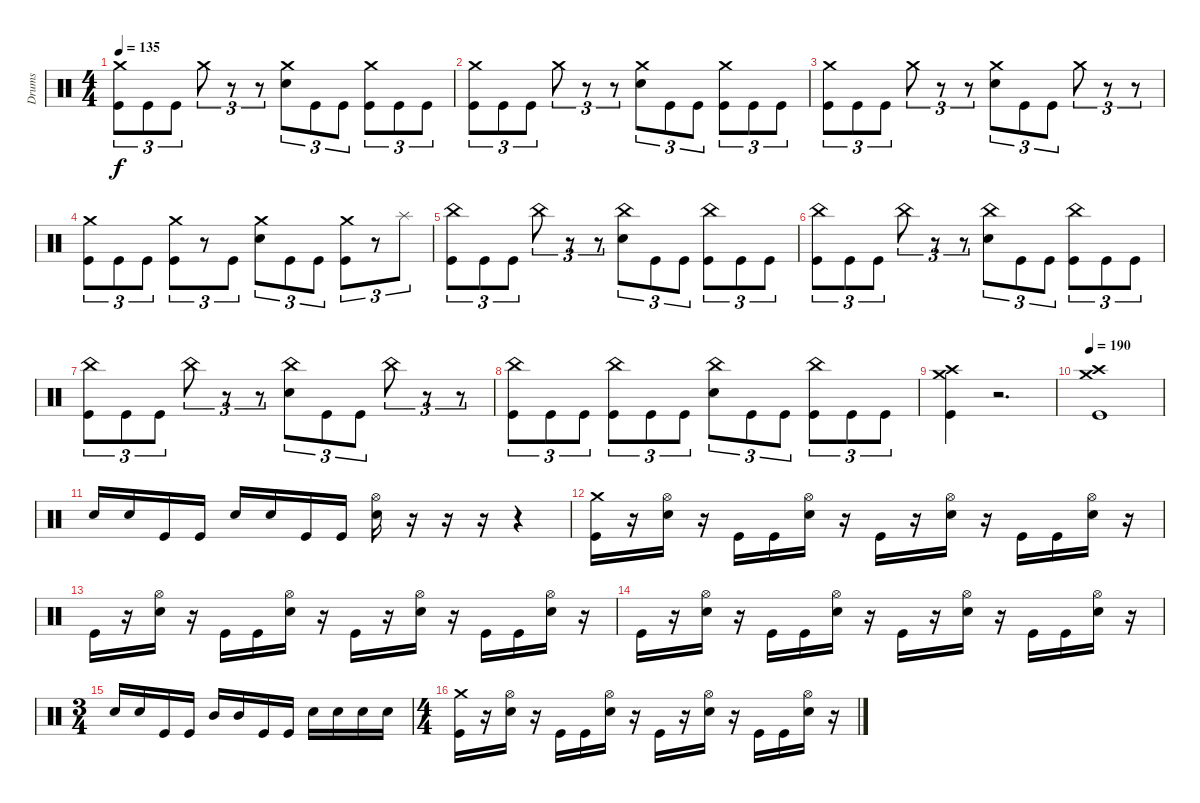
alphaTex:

\track ("Drums" "Drums") {instrument percussion}
\staff {score}
\articulation defaults
\ts (4 4)
\tempo 135
\clef neutral
\ks c
("Crash medium (hit)" "Kick (hit)").8{tu (3 2) dy f} "Kick (hit)".8{tu (3 2)} "Kick (hit)".8{tu (3 2)} "Crash medium (hit)".8{tu (3 2)} r.8{tu (3 2)} r.8{tu (3 2)} ("Crash medium (hit)" "Electric Snare (hit)").8{tu (3 2)} "Kick (hit)".8{tu (3 2)} "Kick (hit)".8{tu (3 2)} ("Crash medium (hit)" "Kick (hit)").8{tu (3 2)} "Kick (hit)".8{tu (3 2)} "Kick (hit)".8{tu (3 2)} |
("Crash medium (hit)" "Kick (hit)").8{tu (3 2)} "Kick (hit)".8{tu (3 2)} "Kick (hit)".8{tu (3 2)} "Crash medium (hit)".8{tu (3 2)} r.8{tu (3 2)} r.8{tu (3 2)} ("Crash medium (hit)" "Electric Snare (hit)").8{tu (3 2)} "Kick (hit)".8{tu (3 2)} "Kick (hit)".8{tu (3 2)} ("Crash medium (hit)" "Kick (hit)").8{tu (3 2)} "Kick (hit)".8{tu (3 2)} "Kick (hit)".8{tu (3 2)} |
("Crash medium (hit)" "Kick (hit)").8{tu (3 2)} "Kick (hit)".8{tu (3 2)} "Kick (hit)".8{tu (3 2)} "Crash medium (hit)".8{tu (3 2)} r.8{tu (3 2)} r.8{tu (3 2)} ("Crash medium (hit)" "Electric Snare (hit)").8{tu (3 2)} "Kick (hit)".8{tu (3 2)} "Kick (hit)".8{tu (3 2)} "Crash medium (hit)".8{tu (3 2)} r.8{tu (3 2)} r.8{tu (3 2)} |
("Crash medium (hit)" "Kick (hit)").8{tu (3 2)} "Kick (hit)".8{tu (3 2)} "Kick (hit)".8{tu (3 2)} ("Crash medium (hit)" "Kick (hit)").8{tu (3 2)} r.8{tu (3 2)} "Kick (hit)".8{tu (3 2)} ("Crash medium (hit)" "Electric Snare (hit)").8{tu (3 2)} "Kick (hit)".8{tu (3 2)} "Kick (hit)".8{tu (3 2)} ("Crash medium (hit)" "Kick (hit)").8{tu (3 2)} r.8{tu (3 2)} "Splash (hit)".8{tu (3 2)} |
("China (hit)" "Kick (hit)").8{tu (3 2)} "Kick (hit)".8{tu (3 2)} "Kick (hit)".8{tu (3 2)} "China (hit)".8{tu (3 2)} r.8{tu (3 2)} r.8{tu (3 2)} ("China (hit)" "Electric Snare (hit)").8{tu (3 2)} "Kick (hit)".8{tu (3 2)} "Kick (hit)".8{tu (3 2)} ("China (hit)" "Kick (hit)").8{tu (3 2)} "Kick (hit)".8{tu (3 2)} "Kick (hit)".8{tu (3 2)} |
("China (hit)" "Kick (hit)").8{tu (3 2)} "Kick (hit)".8{tu (3 2)} "Kick (hit)".8{tu (3 2)} "China (hit)".8{tu (3 2)} r.8{tu (3 2)} r.8{tu (3 2)} ("China (hit)" "Electric Snare (hit)").8{tu (3 2)} "Kick (hit)".8{tu (3 2)} "Kick (hit)".8{tu (3 2)} ("China (hit)" "Kick (hit)").8{tu (3 2)} "Kick (hit)".8{tu (3 2)} "Kick (hit)".8{tu (3 2)} |
("China (hit)" "Kick (hit)").8{tu (3 2)} "Kick (hit)".8{tu (3 2)} "Kick (hit)".8{tu (3 2)} "China (hit)".8{tu (3 2)} r.8{tu (3 2)} r.8{tu (3 2)} ("China (hit)" "Electric Snare (hit)").8{tu (3 2)} "Kick (hit)".8{tu (3 2)} "Kick (hit)".8{tu (3 2)} "China (hit)".8{tu (3 2)} r.8{tu (3 2)} r.8{tu (3 2)} |
("China (hit)" "Kick (hit)").8{tu (3 2)} "Kick (hit)".8{tu (3 2)} "Kick (hit)".8{tu (3 2)} ("China (hit)" "Kick (hit)").8{tu (3 2)} "Kick (hit)".8{tu (3 2)} "Kick (hit)".8{tu (3 2)} ("China (hit)" "Electric Snare (hit)").8{tu (3 2)} "Kick (hit)".8{tu (3 2)} "Kick (hit)".8{tu (3 2)} ("China (hit)" "Kick (hit)").8{tu (3 2)} "Kick (hit)".8{tu (3 2)} "Kick (hit)".8{tu (3 2)} |
("Crash high (hit)" "Crash medium (hit)" "Kick (hit)").4 r.2{d volume 0} |
\tempo 190
("Crash high (hit)" "Crash medium (hit)" "Kick (hit)").1{volume 13} |
"Electric Snare (hit)".16 "Electric Snare (hit)".16 "Kick (hit)".16 "Kick (hit)".16 "Electric Snare (hit)".16 "Electric Snare (hit)".16 "Kick (hit)".16 "Kick (hit)".16 ("Hi-Hat (open)" "Electric Snare (hit)").16 r.16 r.16{volume 0} r.16 r.4 |
("Crash medium (hit)" "Kick (hit)").16{volume 13} r.16 ("Hi-Hat (open)" "Electric Snare (hit)").16 r.16 "Kick (hit)".16{volume 13} "Kick (hit)".16 ("Hi-Hat (open)" "Electric Snare (hit)").16 r.16 "Kick (hit)".16{volume 13} r.16 ("Hi-Hat (open)" "Electric Snare (hit)").16 r.16 "Kick (hit)".16{volume 13} "Kick (hit)".16 ("Hi-Hat (open)" "Electric Snare (hit)").16 r.16 |
"Kick (hit)".16{volume 13} r.16 ("Hi-Hat (open)" "Electric Snare (hit)").16 r.16 "Kick (hit)".16{volume 13} "Kick (hit)".16 ("Hi-Hat (open)" "Electric Snare (hit)").16 r.16 "Kick (hit)".16{volume 13} r.16 ("Hi-Hat (open)" "Electric Snare (hit)").16 r.16 "Kick (hit)".16{volume 13} "Kick (hit)".16 ("Hi-Hat (open)" "Electric Snare (hit)").16 r.16 |
"Kick (hit)".16{volume 13} r.16 ("Hi-Hat (open)" "Electric Snare (hit)").16 r.16 "Kick (hit)".16{volume 13} "Kick (hit)".16 ("Hi-Hat (open)" "Electric Snare (hit)").16 r.16 "Kick (hit)".16{volume 13} r.16 ("Hi-Hat (open)" "Electric Snare (hit)").16 r.16 "Kick (hit)".16{volume 13} "Kick (hit)".16 ("Hi-Hat (open)" "Electric Snare (hit)").16 r.16 |
\ts (3 4)
"Electric Snare (hit)".16 "Electric Snare (hit)".16 "Kick (hit)".16 "Kick (hit)".16 "Mid Tom (hit)".16 "Mid Tom (hit)".16 "Kick (hit)".16 "Kick (hit)".16 "Electric Snare (hit)".16 "Electric Snare (hit)".16 "Electric Snare (hit)".16 "Electric Snare (hit)".16 |
\ts (4 4)
("Crash medium (hit)" "Kick (hit)").16{volume 13} r.16 ("Hi-Hat (open)" "Electric Snare (hit)").16 r.16 "Kick (hit)".16{volume 13} "Kick (hit)".16 ("Hi-Hat (open)" "Electric Snare (hit)").16 r.16 "Kick (hit)".16{volume 13} r.16 ("Hi-Hat (open)" "Electric Snare (hit)").16 r.16 "Kick (hit)".16{volume 13} "Kick (hit)".16 ("Hi-Hat (open)" "Electric Snare (hit)").16 r.16
